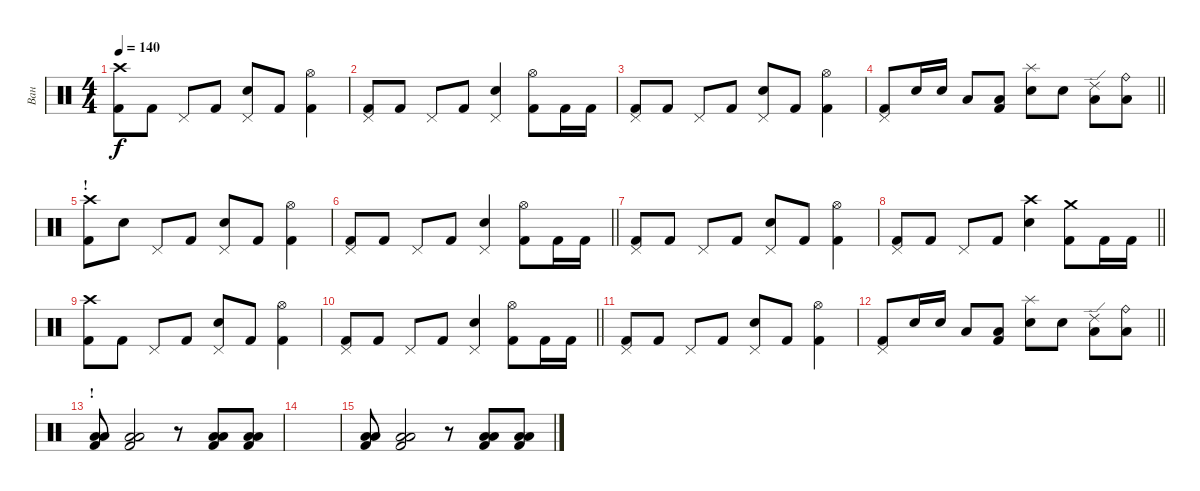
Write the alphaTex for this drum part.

\track ("Ван" "Ван") {instrument percussion}
\staff {score}
\articulation defaults
\ts (4 4)
\tempo 140
\clef neutral
\ks c
("Crash high (hit)" "Kick (hit) 2").8{dy f} "Kick (hit) 2".8 "Pedal Hi-Hat (hit)".8 "Kick (hit) 2".8 ("Pedal Hi-Hat (hit)" "Snare (hit) 2").8 "Kick (hit) 2".8 ("Hi-Hat (open)" "Kick (hit) 2").4 |
("Pedal Hi-Hat (hit)" "Kick (hit) 2").8 "Kick (hit) 2".8 "Pedal Hi-Hat (hit)".8 "Kick (hit) 2".8 ("Pedal Hi-Hat (hit)" "Snare (hit) 2").4 ("Hi-Hat (open)" "Kick (hit) 2").8 "Kick (hit) 2".16 "Kick (hit) 2".16 |
("Pedal Hi-Hat (hit)" "Kick (hit) 2").8 "Kick (hit) 2".8 "Pedal Hi-Hat (hit)".8 "Kick (hit) 2".8 ("Pedal Hi-Hat (hit)" "Snare (hit) 2").8 "Kick (hit) 2".8 ("Hi-Hat (open)" "Kick (hit) 2").4 |
\barLineRight lightlight
("Pedal Hi-Hat (hit)" "Kick (hit) 2").8 "Snare (hit) 2".16 "Snare (hit) 2".16 "Low Floor Tom (hit)".8 ("Low Floor Tom (hit)" "Kick (hit) 2").8 ("Splash (hit)" "Snare (hit) 2").8 "Snare (hit) 2".8 ("Ride (edge) 2" "Low Floor Tom (hit)").8 ("Ride (bell)" "Low Tom (hit)").8 |
\section ("" "!")
("Crash high (hit)" "Kick (hit) 2").8 "Snare (hit) 2".8 "Pedal Hi-Hat (hit)".8 "Kick (hit) 2".8 ("Pedal Hi-Hat (hit)" "Snare (hit) 2").8 "Kick (hit) 2".8 ("Hi-Hat (open)" "Kick (hit) 2").4 |
\barLineRight lightlight
("Pedal Hi-Hat (hit)" "Kick (hit) 2").8 "Kick (hit) 2".8 "Pedal Hi-Hat (hit)".8 "Kick (hit) 2".8 ("Pedal Hi-Hat (hit)" "Snare (hit) 2").4 ("Hi-Hat (open)" "Kick (hit) 2").8 "Kick (hit) 2".16 "Kick (hit) 2".16 |
("Pedal Hi-Hat (hit)" "Kick (hit) 2").8 "Kick (hit) 2".8 "Pedal Hi-Hat (hit)".8 "Kick (hit) 2".8 ("Pedal Hi-Hat (hit)" "Snare (hit) 2").8 "Kick (hit) 2".8 ("Hi-Hat (open)" "Kick (hit) 2").4 |
\barLineRight lightlight
("Pedal Hi-Hat (hit)" "Kick (hit) 2").8 "Kick (hit) 2".8 "Pedal Hi-Hat (hit)".8 "Kick (hit) 2".8 ("Crash high (hit)" "Snare (hit) 2").4 ("Crash medium (hit)" "Kick (hit) 2").8 "Kick (hit) 2".16 "Kick (hit) 2".16 |
("Crash high (hit)" "Kick (hit) 2").8 "Kick (hit) 2".8 "Pedal Hi-Hat (hit)".8 "Kick (hit) 2".8 ("Pedal Hi-Hat (hit)" "Snare (hit) 2").8 "Kick (hit) 2".8 ("Hi-Hat (open)" "Kick (hit) 2").4 |
\barLineRight lightlight
("Pedal Hi-Hat (hit)" "Kick (hit) 2").8 "Kick (hit) 2".8 "Pedal Hi-Hat (hit)".8 "Kick (hit) 2".8 ("Pedal Hi-Hat (hit)" "Snare (hit) 2").4 ("Hi-Hat (open)" "Kick (hit) 2").8 "Kick (hit) 2".16 "Kick (hit) 2".16 |
("Pedal Hi-Hat (hit)" "Kick (hit) 2").8 "Kick (hit) 2".8 "Pedal Hi-Hat (hit)".8 "Kick (hit) 2".8 ("Pedal Hi-Hat (hit)" "Snare (hit) 2").8 "Kick (hit) 2".8 ("Hi-Hat (open)" "Kick (hit) 2").4 |
\barLineRight lightlight
("Pedal Hi-Hat (hit)" "Kick (hit) 2").8 "Snare (hit) 2".16 "Snare (hit) 2".16 "Low Floor Tom (hit)".8 ("Low Floor Tom (hit)" "Kick (hit) 2").8 ("Splash (hit)" "Snare (hit) 2").8 "Snare (hit) 2".8 ("Ride (edge) 2" "Low Floor Tom (hit)").8 ("Ride (bell)" "Low Tom (hit)").8 |
\section ("" "!")
("Low Floor Tom (hit)" "Low Floor Tom (hit)" "Kick (hit) 2").8 ("Low Floor Tom (hit)" "Low Floor Tom (hit)" "Kick (hit) 2").2 r.8 ("Low Floor Tom (hit)" "Low Floor Tom (hit)" "Kick (hit) 2").8 ("Low Floor Tom (hit)" "Low Floor Tom (hit)" "Kick (hit) 2").8 |
|
("Low Floor Tom (hit)" "Low Floor Tom (hit)" "Kick (hit) 2").8 ("Low Floor Tom (hit)" "Low Floor Tom (hit)" "Kick (hit) 2").2 r.8 ("Low Floor Tom (hit)" "Low Floor Tom (hit)" "Kick (hit) 2").8 ("Low Floor Tom (hit)" "Low Floor Tom (hit)" "Kick (hit) 2").8
